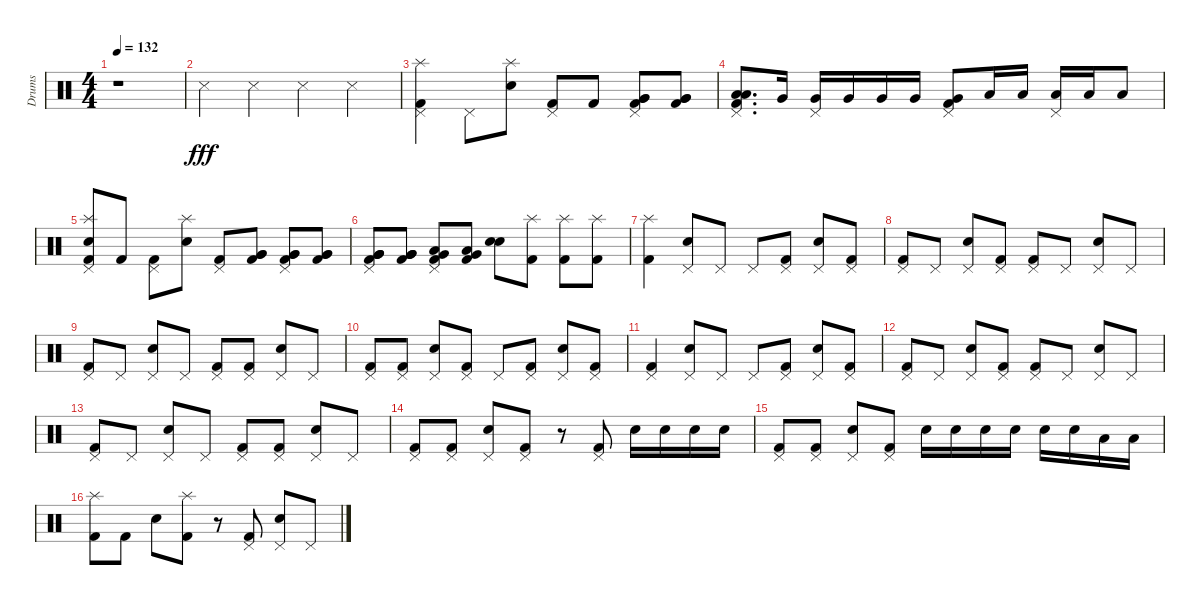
\track ("Drums" "Drums") {instrument percussion}
\staff {score}
\articulation defaults
\ts (4 4)
\tempo 132
\clef neutral
\ks c
r.1{dy fff} |
"Snare (side stick) 3".4 "Snare (side stick) 3".4 "Snare (side stick) 3".4 "Snare (side stick) 3".4 |
("Kick (hit) 2" "Pedal Hi-Hat (hit)" "Splash (hit)").4 "Pedal Hi-Hat (hit)".8 ("Electric Snare (hit)" "Splash (hit)").8 ("Kick (hit) 2" "Pedal Hi-Hat (hit)").8 "Kick (hit) 2".8 ("Very Low Tom (hit)" "Very Low Tom (hit)" "Kick (hit) 2" "Pedal Hi-Hat (hit)").8 ("Very Low Tom (hit)" "Very Low Tom (hit)" "Kick (hit) 2").8 |
("Low Floor Tom (hit)" "Low Floor Tom (hit)" "Kick (hit) 2" "Pedal Hi-Hat (hit)").8{d} "Very Low Tom (hit)".16 ("Very Low Tom (hit)" "Pedal Hi-Hat (hit)").16 "Very Low Tom (hit)".16 "Very Low Tom (hit)".16 "Very Low Tom (hit)".16 ("Kick (hit) 2" "Very Low Tom (hit)" "Pedal Hi-Hat (hit)").8 "Low Floor Tom (hit)".16 "Low Floor Tom (hit)".16 ("Low Floor Tom (hit)" "Pedal Hi-Hat (hit)").16 "Low Floor Tom (hit)".16 "Low Floor Tom (hit)".8 |
("Kick (hit) 2" "Electric Snare (hit)" "Pedal Hi-Hat (hit)" "Splash (hit)").8 "Kick (hit) 2".8 ("Pedal Hi-Hat (hit)" "Kick (hit) 2").8 ("Splash (hit)" "Electric Snare (hit)").8 ("Kick (hit) 2" "Pedal Hi-Hat (hit)").8 ("Very Low Tom (hit)" "Kick (hit) 2" "Very Low Tom (hit)").8 ("Very Low Tom (hit)" "Kick (hit) 2" "Pedal Hi-Hat (hit)" "Very Low Tom (hit)").8 ("Very Low Tom (hit)" "Kick (hit) 2" "Very Low Tom (hit)").8 |
("Very Low Tom (hit)" "Pedal Hi-Hat (hit)" "Kick (hit) 2" "Very Low Tom (hit)" "Very Low Tom (hit)").8 ("Very Low Tom (hit)" "Very Low Tom (hit)" "Kick (hit) 2" "Very Low Tom (hit)").8 ("Very Low Tom (hit)" "Pedal Hi-Hat (hit)" "Kick (hit) 2" "Low Floor Tom (hit)").8 ("Very Low Tom (hit)" "Kick (hit) 2" "Low Floor Tom (hit)").8 ("Snare (hit) 2" "Electric Snare (hit)").8 ("Splash (hit)" "Kick (hit) 2").8 ("Splash (hit)" "Kick (hit) 2").8 ("Splash (hit)" "Kick (hit) 2").8 |
("Kick (hit) 2" "Splash (hit)").4 ("Electric Snare (hit)" "Pedal Hi-Hat (hit)").8 "Pedal Hi-Hat (hit)".8 "Pedal Hi-Hat (hit)".8 ("Kick (hit) 2" "Pedal Hi-Hat (hit)").8 ("Electric Snare (hit)" "Pedal Hi-Hat (hit)").8 ("Kick (hit) 2" "Pedal Hi-Hat (hit)").8 |
("Kick (hit) 2" "Pedal Hi-Hat (hit)").8 "Pedal Hi-Hat (hit)".8 ("Electric Snare (hit)" "Pedal Hi-Hat (hit)").8 ("Kick (hit) 2" "Pedal Hi-Hat (hit)").8 ("Kick (hit) 2" "Pedal Hi-Hat (hit)").8 "Pedal Hi-Hat (hit)".8 ("Electric Snare (hit)" "Pedal Hi-Hat (hit)").8 "Pedal Hi-Hat (hit)".8 |
("Kick (hit) 2" "Pedal Hi-Hat (hit)").8 "Pedal Hi-Hat (hit)".8 ("Electric Snare (hit)" "Pedal Hi-Hat (hit)").8 "Pedal Hi-Hat (hit)".8 ("Kick (hit) 2" "Pedal Hi-Hat (hit)").8 ("Kick (hit) 2" "Pedal Hi-Hat (hit)").8 ("Electric Snare (hit)" "Pedal Hi-Hat (hit)").8 "Pedal Hi-Hat (hit)".8 |
("Kick (hit) 2" "Pedal Hi-Hat (hit)").8 ("Kick (hit) 2" "Pedal Hi-Hat (hit)").8 ("Electric Snare (hit)" "Pedal Hi-Hat (hit)").8 ("Kick (hit) 2" "Pedal Hi-Hat (hit)").8 "Pedal Hi-Hat (hit)".8 ("Kick (hit) 2" "Pedal Hi-Hat (hit)").8 ("Electric Snare (hit)" "Pedal Hi-Hat (hit)").8 ("Kick (hit) 2" "Pedal Hi-Hat (hit)").8 |
("Kick (hit) 2" "Pedal Hi-Hat (hit)").4 ("Electric Snare (hit)" "Pedal Hi-Hat (hit)").8 "Pedal Hi-Hat (hit)".8 "Pedal Hi-Hat (hit)".8 ("Kick (hit) 2" "Pedal Hi-Hat (hit)").8 ("Electric Snare (hit)" "Pedal Hi-Hat (hit)").8 ("Kick (hit) 2" "Pedal Hi-Hat (hit)").8 |
("Kick (hit) 2" "Pedal Hi-Hat (hit)").8 "Pedal Hi-Hat (hit)".8 ("Electric Snare (hit)" "Pedal Hi-Hat (hit)").8 ("Kick (hit) 2" "Pedal Hi-Hat (hit)").8 ("Kick (hit) 2" "Pedal Hi-Hat (hit)").8 "Pedal Hi-Hat (hit)".8 ("Electric Snare (hit)" "Pedal Hi-Hat (hit)").8 "Pedal Hi-Hat (hit)".8 |
("Kick (hit) 2" "Pedal Hi-Hat (hit)").8 "Pedal Hi-Hat (hit)".8 ("Electric Snare (hit)" "Pedal Hi-Hat (hit)").8 "Pedal Hi-Hat (hit)".8 ("Kick (hit) 2" "Pedal Hi-Hat (hit)").8 ("Kick (hit) 2" "Pedal Hi-Hat (hit)").8 ("Electric Snare (hit)" "Pedal Hi-Hat (hit)").8 "Pedal Hi-Hat (hit)".8 |
("Kick (hit) 2" "Pedal Hi-Hat (hit)").8 ("Kick (hit) 2" "Pedal Hi-Hat (hit)").8 ("Electric Snare (hit)" "Pedal Hi-Hat (hit)").8 ("Kick (hit) 2" "Pedal Hi-Hat (hit)").8 r.8 ("Kick (hit) 2" "Pedal Hi-Hat (hit)").8 "Electric Snare (hit)".16 "Electric Snare (hit)".16 "Electric Snare (hit)".16 "Electric Snare (hit)".16 |
("Kick (hit) 2" "Pedal Hi-Hat (hit)").8 ("Kick (hit) 2" "Pedal Hi-Hat (hit)").8 ("Electric Snare (hit)" "Pedal Hi-Hat (hit)").8 ("Kick (hit) 2" "Pedal Hi-Hat (hit)").8 "Electric Snare (hit)".16 "Electric Snare (hit)".16 "Electric Snare (hit)".16 "Electric Snare (hit)".16 "Electric Snare (hit)".16 "Electric Snare (hit)".16 "Low Tom (hit)".16 "Low Tom (hit)".16 |
("Kick (hit) 2" "Splash (hit)").8 "Kick (hit) 2".8 "Electric Snare (hit)".8 ("Splash (hit)" "Kick (hit) 2").8 r.8 ("Kick (hit) 2" "Pedal Hi-Hat (hit)").8 ("Electric Snare (hit)" "Pedal Hi-Hat (hit)").8 "Pedal Hi-Hat (hit)".8
